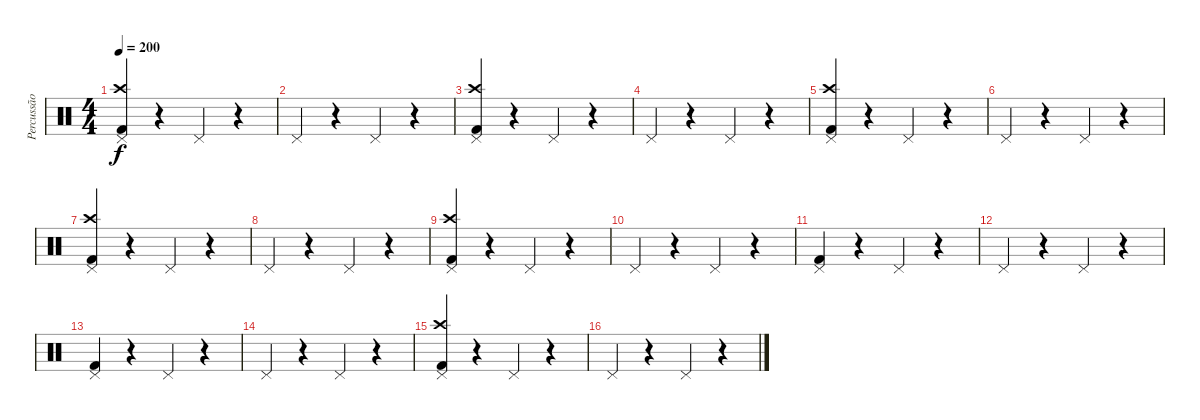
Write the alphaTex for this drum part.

\track ("Percussão" "Percussão") {instrument percussion}
\staff {score}
\articulation defaults
\ts (4 4)
\tempo 200
\clef neutral
\ks c
("Pedal Hi-Hat (hit)" "Crash high (hit)" "Kick (hit) 2").4{dy f} r.4 "Pedal Hi-Hat (hit)".4 r.4 |
"Pedal Hi-Hat (hit)".4 r.4 "Pedal Hi-Hat (hit)".4 r.4 |
("Pedal Hi-Hat (hit)" "Crash high (hit)" "Kick (hit) 2").4 r.4 "Pedal Hi-Hat (hit)".4 r.4 |
"Pedal Hi-Hat (hit)".4 r.4 "Pedal Hi-Hat (hit)".4 r.4 |
("Pedal Hi-Hat (hit)" "Crash high (hit)" "Kick (hit) 2").4 r.4 "Pedal Hi-Hat (hit)".4 r.4 |
"Pedal Hi-Hat (hit)".4 r.4 "Pedal Hi-Hat (hit)".4 r.4 |
("Pedal Hi-Hat (hit)" "Crash high (hit)" "Kick (hit) 2").4 r.4 "Pedal Hi-Hat (hit)".4 r.4 |
"Pedal Hi-Hat (hit)".4 r.4 "Pedal Hi-Hat (hit)".4 r.4 |
("Pedal Hi-Hat (hit)" "Crash high (hit)" "Kick (hit) 2").4 r.4 "Pedal Hi-Hat (hit)".4 r.4 |
"Pedal Hi-Hat (hit)".4 r.4 "Pedal Hi-Hat (hit)".4 r.4 |
("Pedal Hi-Hat (hit)" "Kick (hit) 2").4 r.4 "Pedal Hi-Hat (hit)".4 r.4 |
"Pedal Hi-Hat (hit)".4 r.4 "Pedal Hi-Hat (hit)".4 r.4 |
("Pedal Hi-Hat (hit)" "Kick (hit) 2").4 r.4 "Pedal Hi-Hat (hit)".4 r.4 |
"Pedal Hi-Hat (hit)".4 r.4 "Pedal Hi-Hat (hit)".4 r.4 |
("Pedal Hi-Hat (hit)" "Crash high (hit)" "Kick (hit) 2").4 r.4 "Pedal Hi-Hat (hit)".4 r.4 |
"Pedal Hi-Hat (hit)".4 r.4 "Pedal Hi-Hat (hit)".4 r.4
